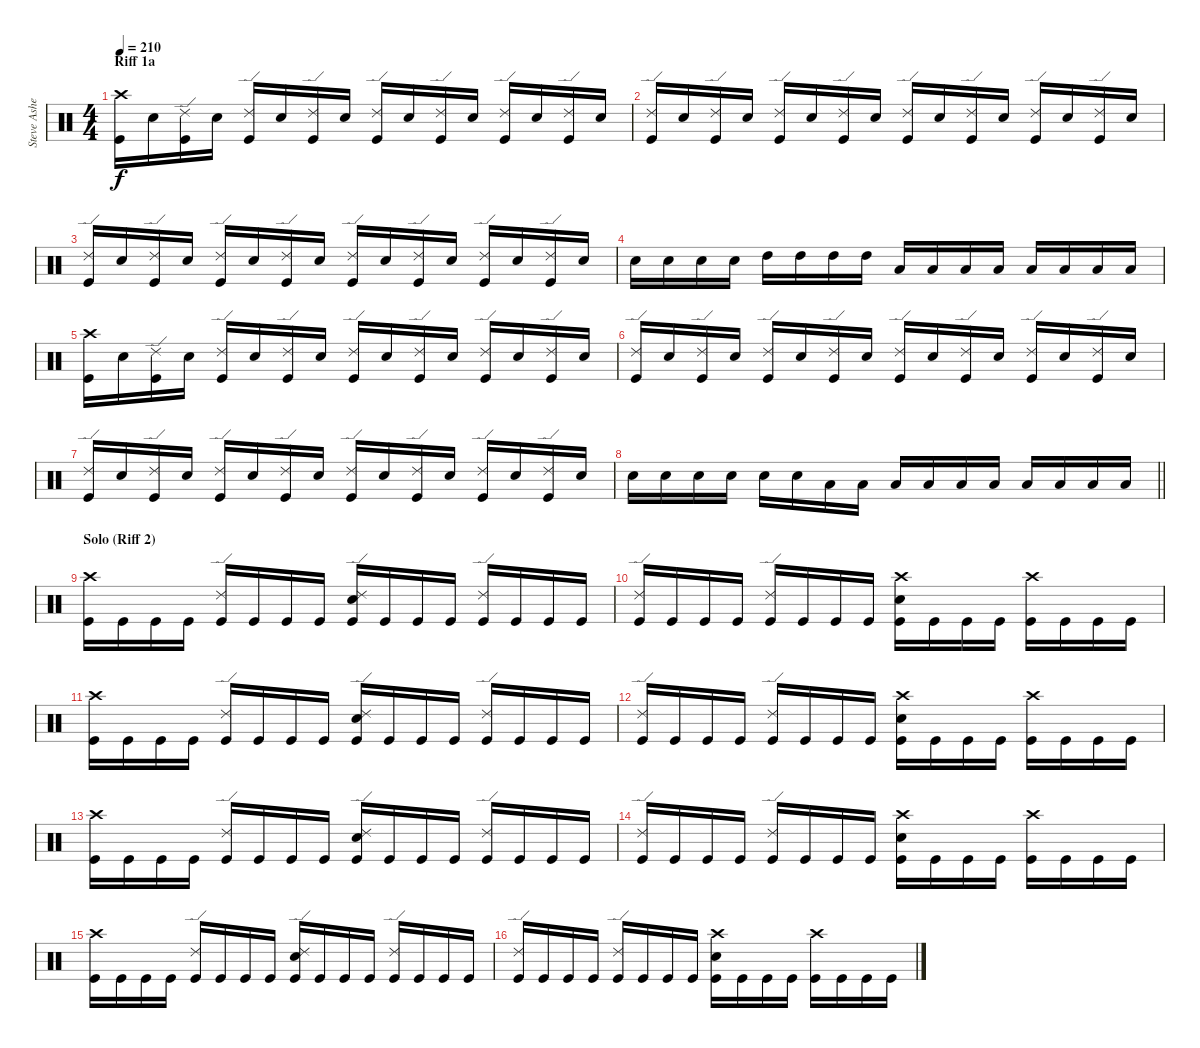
\track ("Steve Asheim" "Steve Ashe") {instrument percussion}
\staff {score}
\articulation defaults
\ts (4 4)
\section ("" "Riff 1a")
\tempo 210
\clef neutral
\ks c
("Crash high (hit)" "Kick (hit)").16{dy f} "Snare (hit) 2".16 ("Ride (edge) 2" "Kick (hit)").16 "Snare (hit) 2".16 ("Ride (edge) 2" "Kick (hit)").16 "Snare (hit) 2".16 ("Ride (edge) 2" "Kick (hit)").16 "Snare (hit) 2".16 ("Ride (edge) 2" "Kick (hit)").16 "Snare (hit) 2".16 ("Ride (edge) 2" "Kick (hit)").16 "Snare (hit) 2".16 ("Ride (edge) 2" "Kick (hit)").16 "Snare (hit) 2".16 ("Ride (edge) 2" "Kick (hit)").16 "Snare (hit) 2".16 |
("Ride (edge) 2" "Kick (hit)").16 "Snare (hit) 2".16 ("Ride (edge) 2" "Kick (hit)").16 "Snare (hit) 2".16 ("Ride (edge) 2" "Kick (hit)").16 "Snare (hit) 2".16 ("Ride (edge) 2" "Kick (hit)").16 "Snare (hit) 2".16 ("Ride (edge) 2" "Kick (hit)").16 "Snare (hit) 2".16 ("Ride (edge) 2" "Kick (hit)").16 "Snare (hit) 2".16 ("Ride (edge) 2" "Kick (hit)").16 "Snare (hit) 2".16 ("Ride (edge) 2" "Kick (hit)").16 "Snare (hit) 2".16 |
("Ride (edge) 2" "Kick (hit)").16 "Snare (hit) 2".16 ("Ride (edge) 2" "Kick (hit)").16 "Snare (hit) 2".16 ("Ride (edge) 2" "Kick (hit)").16 "Snare (hit) 2".16 ("Ride (edge) 2" "Kick (hit)").16 "Snare (hit) 2".16 ("Ride (edge) 2" "Kick (hit)").16 "Snare (hit) 2".16 ("Ride (edge) 2" "Kick (hit)").16 "Snare (hit) 2".16 ("Ride (edge) 2" "Kick (hit)").16 "Snare (hit) 2".16 ("Ride (edge) 2" "Kick (hit)").16 "Snare (hit) 2".16 |
"Snare (hit) 2".16 "Snare (hit) 2".16 "Snare (hit) 2".16 "Snare (hit) 2".16 "High Tom (hit)".16 "High Tom (hit)".16 "High Tom (hit)".16 "High Tom (hit)".16 "Low Tom (hit)".16 "Low Tom (hit)".16 "Low Tom (hit)".16 "Low Tom (hit)".16 "Low Floor Tom (hit)".16 "Low Floor Tom (hit)".16 "Low Floor Tom (hit)".16 "Low Floor Tom (hit)".16 |
("Crash high (hit)" "Kick (hit)").16 "Snare (hit) 2".16 ("Ride (edge) 2" "Kick (hit)").16 "Snare (hit) 2".16 ("Ride (edge) 2" "Kick (hit)").16 "Snare (hit) 2".16 ("Ride (edge) 2" "Kick (hit)").16 "Snare (hit) 2".16 ("Ride (edge) 2" "Kick (hit)").16 "Snare (hit) 2".16 ("Ride (edge) 2" "Kick (hit)").16 "Snare (hit) 2".16 ("Ride (edge) 2" "Kick (hit)").16 "Snare (hit) 2".16 ("Ride (edge) 2" "Kick (hit)").16 "Snare (hit) 2".16 |
("Ride (edge) 2" "Kick (hit)").16 "Snare (hit) 2".16 ("Ride (edge) 2" "Kick (hit)").16 "Snare (hit) 2".16 ("Ride (edge) 2" "Kick (hit)").16 "Snare (hit) 2".16 ("Ride (edge) 2" "Kick (hit)").16 "Snare (hit) 2".16 ("Ride (edge) 2" "Kick (hit)").16 "Snare (hit) 2".16 ("Ride (edge) 2" "Kick (hit)").16 "Snare (hit) 2".16 ("Ride (edge) 2" "Kick (hit)").16 "Snare (hit) 2".16 ("Ride (edge) 2" "Kick (hit)").16 "Snare (hit) 2".16 |
("Ride (edge) 2" "Kick (hit)").16 "Snare (hit) 2".16 ("Ride (edge) 2" "Kick (hit)").16 "Snare (hit) 2".16 ("Ride (edge) 2" "Kick (hit)").16 "Snare (hit) 2".16 ("Ride (edge) 2" "Kick (hit)").16 "Snare (hit) 2".16 ("Ride (edge) 2" "Kick (hit)").16 "Snare (hit) 2".16 ("Ride (edge) 2" "Kick (hit)").16 "Snare (hit) 2".16 ("Ride (edge) 2" "Kick (hit)").16 "Snare (hit) 2".16 ("Ride (edge) 2" "Kick (hit)").16 "Snare (hit) 2".16 |
\barLineRight lightlight "Snare (hit) 2".16 "Snare (hit) 2".16 "Snare (hit) 2".16 "Snare (hit) 2".16 "Snare (hit) 2".16 "Snare (hit) 2".16 "Low Tom (hit)".16 "Low Tom (hit)".16 "Low Tom (hit)".16 "Low Tom (hit)".16 "Low Tom (hit)".16 "Low Tom (hit)".16 "Low Tom (hit)".16 "Low Tom (hit)".16 "Low Floor Tom (hit)".16 "Low Floor Tom (hit)".16
|
\section ("" "Solo (Riff 2)")
("Crash high (hit)" "Kick (hit)").16 "Kick (hit)".16 "Kick (hit)".16 "Kick (hit)".16 ("Ride (edge) 2" "Kick (hit)").16 "Kick (hit)".16 "Kick (hit)".16 "Kick (hit)".16 ("Ride (edge) 2" "Snare (hit) 2" "Kick (hit)").16 "Kick (hit)".16 "Kick (hit)".16 "Kick (hit)".16 ("Ride (edge) 2" "Kick (hit)").16 "Kick (hit)".16 "Kick (hit)".16 "Kick (hit)".16 |
("Ride (edge) 2" "Kick (hit)").16 "Kick (hit)".16 "Kick (hit)".16 "Kick (hit)".16 ("Ride (edge) 2" "Kick (hit)").16 "Kick (hit)".16 "Kick (hit)".16 "Kick (hit)".16 ("Crash high (hit)" "Snare (hit) 2" "Kick (hit)").16 "Kick (hit)".16 "Kick (hit)".16 "Kick (hit)".16 ("Crash high (hit)" "Kick (hit)").16 "Kick (hit)".16 "Kick (hit)".16 "Kick (hit)".16 |
("Crash high (hit)" "Kick (hit)").16 "Kick (hit)".16 "Kick (hit)".16 "Kick (hit)".16 ("Ride (edge) 2" "Kick (hit)").16 "Kick (hit)".16 "Kick (hit)".16 "Kick (hit)".16 ("Ride (edge) 2" "Snare (hit) 2" "Kick (hit)").16 "Kick (hit)".16 "Kick (hit)".16 "Kick (hit)".16 ("Ride (edge) 2" "Kick (hit)").16 "Kick (hit)".16 "Kick (hit)".16 "Kick (hit)".16 |
("Ride (edge) 2" "Kick (hit)").16 "Kick (hit)".16 "Kick (hit)".16 "Kick (hit)".16 ("Ride (edge) 2" "Kick (hit)").16 "Kick (hit)".16 "Kick (hit)".16 "Kick (hit)".16 ("Crash high (hit)" "Snare (hit) 2" "Kick (hit)").16 "Kick (hit)".16 "Kick (hit)".16 "Kick (hit)".16 ("Crash high (hit)" "Kick (hit)").16 "Kick (hit)".16 "Kick (hit)".16 "Kick (hit)".16 |
("Crash high (hit)" "Kick (hit)").16 "Kick (hit)".16 "Kick (hit)".16 "Kick (hit)".16 ("Ride (edge) 2" "Kick (hit)").16 "Kick (hit)".16 "Kick (hit)".16 "Kick (hit)".16 ("Ride (edge) 2" "Snare (hit) 2" "Kick (hit)").16 "Kick (hit)".16 "Kick (hit)".16 "Kick (hit)".16 ("Ride (edge) 2" "Kick (hit)").16 "Kick (hit)".16 "Kick (hit)".16 "Kick (hit)".16 |
("Ride (edge) 2" "Kick (hit)").16 "Kick (hit)".16 "Kick (hit)".16 "Kick (hit)".16 ("Ride (edge) 2" "Kick (hit)").16 "Kick (hit)".16 "Kick (hit)".16 "Kick (hit)".16 ("Crash high (hit)" "Snare (hit) 2" "Kick (hit)").16 "Kick (hit)".16 "Kick (hit)".16 "Kick (hit)".16 ("Crash high (hit)" "Kick (hit)").16 "Kick (hit)".16 "Kick (hit)".16 "Kick (hit)".16 |
("Crash high (hit)" "Kick (hit)").16 "Kick (hit)".16 "Kick (hit)".16 "Kick (hit)".16 ("Ride (edge) 2" "Kick (hit)").16 "Kick (hit)".16 "Kick (hit)".16 "Kick (hit)".16 ("Ride (edge) 2" "Snare (hit) 2" "Kick (hit)").16 "Kick (hit)".16 "Kick (hit)".16 "Kick (hit)".16 ("Ride (edge) 2" "Kick (hit)").16 "Kick (hit)".16 "Kick (hit)".16 "Kick (hit)".16 |
("Ride (edge) 2" "Kick (hit)").16 "Kick (hit)".16 "Kick (hit)".16 "Kick (hit)".16 ("Ride (edge) 2" "Kick (hit)").16 "Kick (hit)".16 "Kick (hit)".16 "Kick (hit)".16 ("Crash high (hit)" "Snare (hit) 2" "Kick (hit)").16 "Kick (hit)".16 "Kick (hit)".16 "Kick (hit)".16 ("Crash high (hit)" "Kick (hit)").16 "Kick (hit)".16 "Kick (hit)".16 "Kick (hit)".16
